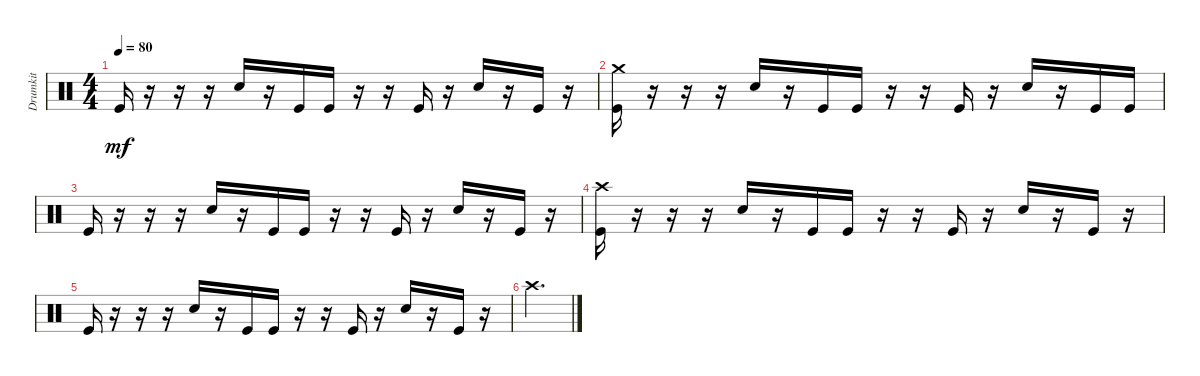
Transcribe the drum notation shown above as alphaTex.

\track ("Drumkit" "Drumkit") {instrument percussion}
\staff {score}
\articulation defaults
\ts (4 4)
\tempo 80
\clef neutral
\ks c "Kick (hit)".16{dy mf}
r.16 r.16 r.16 "Snare (hit) 2".16 r.16 "Kick (hit)".16 "Kick (hit)".16 r.16 r.16 "Kick (hit)".16 r.16 "Snare (hit) 2".16 r.16 "Kick (hit)".16 r.16 |
("Kick (hit)" "Crash medium (hit)").16 r.16 r.16 r.16 "Snare (hit) 2".16 r.16 "Kick (hit)".16 "Kick (hit)".16 r.16 r.16 "Kick (hit)".16 r.16 "Snare (hit) 2".16 r.16 "Kick (hit)".16 "Kick (hit)".16 |
"Kick (hit)".16 r.16 r.16 r.16 "Snare (hit) 2".16 r.16 "Kick (hit)".16 "Kick (hit)".16 r.16 r.16 "Kick (hit)".16 r.16 "Snare (hit) 2".16 r.16 "Kick (hit)".16 r.16 |
("Kick (hit)" "Crash high (hit)").16 r.16 r.16 r.16 "Snare (hit) 2".16 r.16 "Kick (hit)".16 "Kick (hit)".16 r.16 r.16 "Kick (hit)".16 r.16 "Snare (hit) 2".16 r.16 "Kick (hit)".16 r.16 |
"Kick (hit)".16 r.16 r.16 r.16 "Snare (hit) 2".16 r.16 "Kick (hit)".16 "Kick (hit)".16 r.16 r.16 "Kick (hit)".16 r.16 "Snare (hit) 2".16 r.16 "Kick (hit)".16 r.16 |
"Crash high (hit)".4{d}
